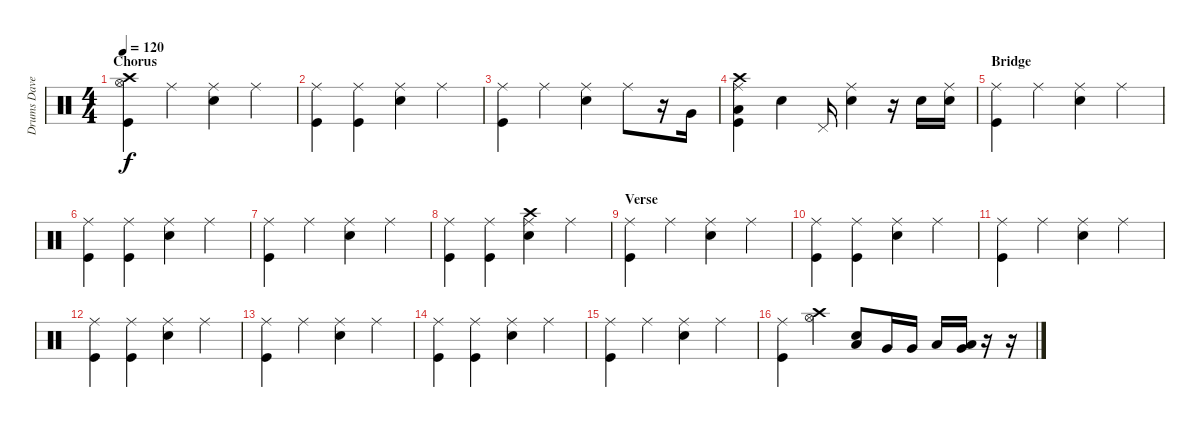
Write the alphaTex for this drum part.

\track ("Drums Dave Grohl" "Drums Dave") {instrument percussion}
\staff {score}
\articulation defaults
\ts (4 4)
\section ("" "Chorus")
\tempo 120
\clef neutral
\ks c
("Crash high (hit)" "Hi-Hat (open)" "Kick (hit)").4{dy f} "Ride (middle)".4 ("Ride (middle)" "Electric Snare (hit)").4 "Ride (middle)".4 |
("Ride (middle)" "Kick (hit)").4 ("Ride (middle)" "Kick (hit)").4 ("Ride (middle)" "Electric Snare (hit)").4 "Ride (middle)".4 |
("Ride (middle)" "Kick (hit)").4 "Ride (middle)".4 ("Ride (middle)" "Electric Snare (hit)").4 "Ride (middle)".8 r.16 "Very Low Tom (hit)".16 |
("Ride (middle)" "Crash high (hit)" "Low Tom (hit)" "Kick (hit)").4 "Electric Snare (hit)".4 "Pedal Hi-Hat (hit)".16 ("Ride (middle)" "Electric Snare (hit)").4 r.16 "Electric Snare (hit)".16 ("Ride (middle)" "Electric Snare (hit)").16 |
\section ("" "Bridge")
("Ride (middle)" "Kick (hit)").4 "Ride (middle)".4 ("Ride (middle)" "Electric Snare (hit)").4 "Ride (middle)".4 |
("Ride (middle)" "Kick (hit)").4 ("Ride (middle)" "Kick (hit)").4 ("Ride (middle)" "Electric Snare (hit)").4 "Ride (middle)".4 |
("Ride (middle)" "Kick (hit)").4 "Ride (middle)".4 ("Ride (middle)" "Electric Snare (hit)").4 "Ride (middle)".4 |
("Ride (middle)" "Kick (hit)").4 ("Ride (middle)" "Kick (hit)").4 ("Ride (middle)" "Crash high (hit)" "Electric Snare (hit)").4 "Ride (middle)".4 |
\section ("" "Verse")
("Ride (middle)" "Kick (hit)").4 "Ride (middle)".4 ("Ride (middle)" "Electric Snare (hit)").4 "Ride (middle)".4 |
("Ride (middle)" "Kick (hit)").4 ("Ride (middle)" "Kick (hit)").4 ("Ride (middle)" "Electric Snare (hit)").4 "Ride (middle)".4 |
("Ride (middle)" "Kick (hit)").4 "Ride (middle)".4 ("Ride (middle)" "Electric Snare (hit)").4 "Ride (middle)".4 |
("Ride (middle)" "Kick (hit)").4 ("Ride (middle)" "Kick (hit)").4 ("Ride (middle)" "Electric Snare (hit)").4 "Ride (middle)".4 |
("Ride (middle)" "Kick (hit)").4 "Ride (middle)".4 ("Ride (middle)" "Electric Snare (hit)").4 "Ride (middle)".4 |
("Ride (middle)" "Kick (hit)").4 ("Ride (middle)" "Kick (hit)").4 ("Ride (middle)" "Electric Snare (hit)").4 "Ride (middle)".4 |
("Ride (middle)" "Kick (hit)").4 "Ride (middle)".4 ("Ride (middle)" "Electric Snare (hit)").4 "Ride (middle)".4 |
("Ride (middle)" "Kick (hit)").4 ("Crash high (hit)" "Hi-Hat (open)").4 ("Low Tom (hit)" "Electric Snare (hit)").8 "Very Low Tom (hit)".16 "Very Low Tom (hit)".16 "Low Floor Tom (hit)".16 ("Low Tom (hit)" "Very Low Tom (hit)").16 r.16 r.16
